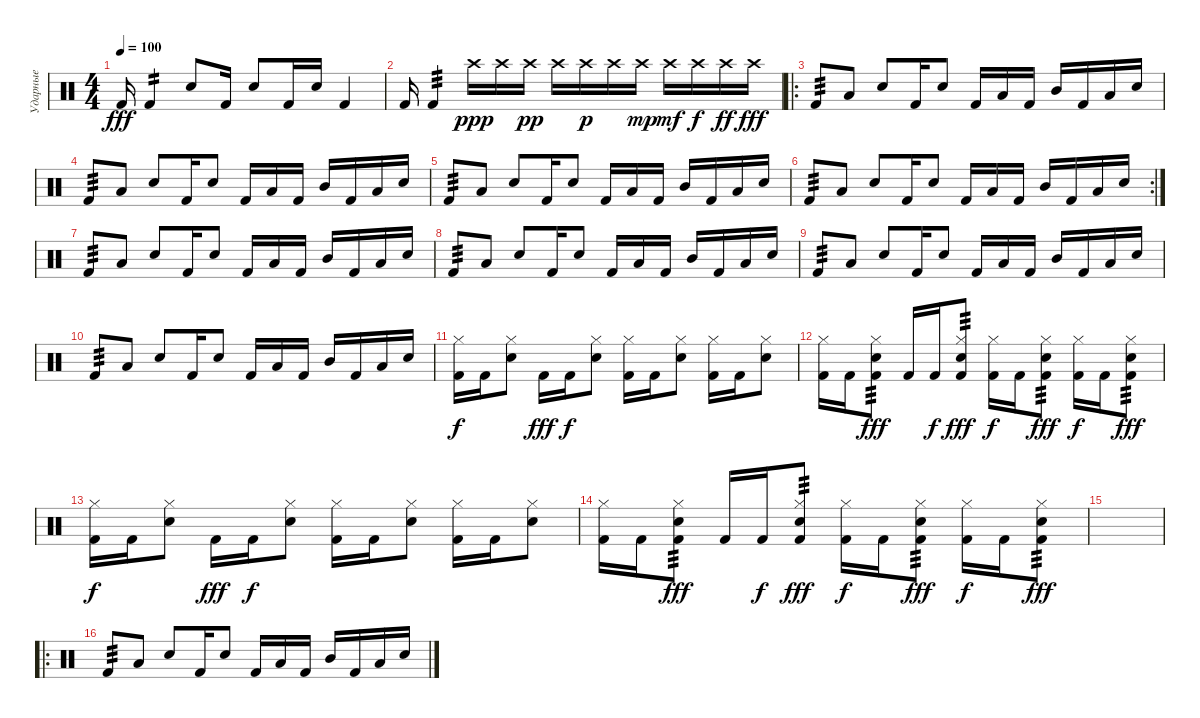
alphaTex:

\track ("Ударные" "Ударные") {instrument percussion}
\staff {score}
\articulation defaults
\ts (4 4)
\tempo 100
\clef neutral
\ks c "Kick (hit) 2".16{dy fff} "Kick (hit) 2".4{tp 2} "Snare (hit) 2".8 "Kick (hit) 2".16 "Snare (hit) 2".8 "Kick (hit) 2".16 "Snare (hit) 2".16 "Kick (hit) 2".4
|
"Kick (hit) 2".16 "Kick (hit) 2".4{tp 3} "Crash high (hit)".16{dy ppp} "Crash high (hit)".16 "Crash high (hit)".16{dy pp} "Crash high (hit)".16 "Crash high (hit)".16{dy p} "Crash high (hit)".16 "Crash high (hit)".16{dy mp} "Crash high (hit)".16{dy mf} "Crash high (hit)".16{dy f} "Crash high (hit)".16{dy ff} "Crash high (hit)".16{dy fff} |
\ro "Kick (hit) 2".8{tp 3} "Low Floor Tom (hit)".8 "Snare (hit) 2".8 "Kick (hit) 2".16 "Snare (hit) 2".8 "Kick (hit) 2".16 "Low Tom (hit)".16 "Kick (hit) 2".16 "Mid Tom (hit)".16 "Kick (hit) 2".16 "Low Tom (hit)".16 "Snare (hit) 2".16
|
"Kick (hit) 2".8{tp 3} "Low Floor Tom (hit)".8 "Snare (hit) 2".8 "Kick (hit) 2".16 "Snare (hit) 2".8 "Kick (hit) 2".16 "Low Tom (hit)".16 "Kick (hit) 2".16 "Mid Tom (hit)".16 "Kick (hit) 2".16 "Low Tom (hit)".16 "Snare (hit) 2".16 |
"Kick (hit) 2".8{tp 3} "Low Floor Tom (hit)".8 "Snare (hit) 2".8 "Kick (hit) 2".16 "Snare (hit) 2".8 "Kick (hit) 2".16 "Low Tom (hit)".16 "Kick (hit) 2".16 "Mid Tom (hit)".16 "Kick (hit) 2".16 "Low Tom (hit)".16 "Snare (hit) 2".16 |
\rc 2 "Kick (hit) 2".8{tp 3} "Low Floor Tom (hit)".8 "Snare (hit) 2".8 "Kick (hit) 2".16 "Snare (hit) 2".8 "Kick (hit) 2".16 "Low Tom (hit)".16 "Kick (hit) 2".16 "Mid Tom (hit)".16 "Kick (hit) 2".16 "Low Tom (hit)".16 "Snare (hit) 2".16
|
"Kick (hit) 2".8{tp 3} "Low Floor Tom (hit)".8 "Snare (hit) 2".8 "Kick (hit) 2".16 "Snare (hit) 2".8 "Kick (hit) 2".16 "Low Tom (hit)".16 "Kick (hit) 2".16 "Mid Tom (hit)".16 "Kick (hit) 2".16 "Low Tom (hit)".16 "Snare (hit) 2".16 |
"Kick (hit) 2".8{tp 3} "Low Floor Tom (hit)".8 "Snare (hit) 2".8 "Kick (hit) 2".16 "Snare (hit) 2".8 "Kick (hit) 2".16 "Low Tom (hit)".16 "Kick (hit) 2".16 "Mid Tom (hit)".16 "Kick (hit) 2".16 "Low Tom (hit)".16 "Snare (hit) 2".16 |
"Kick (hit) 2".8{tp 3} "Low Floor Tom (hit)".8 "Snare (hit) 2".8 "Kick (hit) 2".16 "Snare (hit) 2".8 "Kick (hit) 2".16 "Low Tom (hit)".16 "Kick (hit) 2".16 "Mid Tom (hit)".16 "Kick (hit) 2".16 "Low Tom (hit)".16 "Snare (hit) 2".16 |
"Kick (hit) 2".8{tp 3} "Low Floor Tom (hit)".8 "Snare (hit) 2".8 "Kick (hit) 2".16 "Snare (hit) 2".8 "Kick (hit) 2".16 "Low Tom (hit)".16 "Kick (hit) 2".16 "Mid Tom (hit)".16 "Kick (hit) 2".16 "Low Tom (hit)".16 "Snare (hit) 2".16 |
("Hi-Hat (closed)" "Kick (hit) 2").16{dy f} "Kick (hit) 2".16 ("Hi-Hat (closed)" "Electric Snare (hit)").8 "Kick (hit) 2".16{dy fff} "Kick (hit) 2".16{dy f} ("Hi-Hat (closed)" "Electric Snare (hit)").8 ("Hi-Hat (closed)" "Kick (hit) 2").16 "Kick (hit) 2".16 ("Hi-Hat (closed)" "Electric Snare (hit)").8 ("Hi-Hat (closed)" "Kick (hit) 2").16 "Kick (hit) 2".16 ("Hi-Hat (closed)" "Electric Snare (hit)").8 |
("Hi-Hat (closed)" "Kick (hit) 2").16 "Kick (hit) 2".16 ("Hi-Hat (closed)" "Electric Snare (hit)" "Kick (hit) 2").8{tp 3 dy fff} "Kick (hit) 2".16 "Kick (hit) 2".16{dy f} ("Hi-Hat (closed)" "Electric Snare (hit)" "Kick (hit) 2").8{tp 3 dy fff} ("Hi-Hat (closed)" "Kick (hit) 2").16{dy f} "Kick (hit) 2".16 ("Hi-Hat (closed)" "Electric Snare (hit)" "Kick (hit) 2").8{tp 3 dy fff} ("Hi-Hat (closed)" "Kick (hit) 2").16{dy f} "Kick (hit) 2".16 ("Hi-Hat (closed)" "Electric Snare (hit)" "Kick (hit) 2").8{tp 3 dy fff} |
("Hi-Hat (closed)" "Kick (hit) 2").16{dy f} "Kick (hit) 2".16 ("Hi-Hat (closed)" "Electric Snare (hit)").8 "Kick (hit) 2".16{dy fff} "Kick (hit) 2".16{dy f} ("Hi-Hat (closed)" "Electric Snare (hit)").8 ("Hi-Hat (closed)" "Kick (hit) 2").16 "Kick (hit) 2".16 ("Hi-Hat (closed)" "Electric Snare (hit)").8 ("Hi-Hat (closed)" "Kick (hit) 2").16 "Kick (hit) 2".16 ("Hi-Hat (closed)" "Electric Snare (hit)").8 |
("Hi-Hat (closed)" "Kick (hit) 2").16 "Kick (hit) 2".16 ("Hi-Hat (closed)" "Electric Snare (hit)" "Kick (hit) 2").8{tp 3 dy fff} "Kick (hit) 2".16 "Kick (hit) 2".16{dy f} ("Hi-Hat (closed)" "Electric Snare (hit)" "Kick (hit) 2").8{tp 3 dy fff} ("Hi-Hat (closed)" "Kick (hit) 2").16{dy f} "Kick (hit) 2".16 ("Hi-Hat (closed)" "Electric Snare (hit)" "Kick (hit) 2").8{tp 3 dy fff} ("Hi-Hat (closed)" "Kick (hit) 2").16{dy f} "Kick (hit) 2".16 ("Hi-Hat (closed)" "Electric Snare (hit)" "Kick (hit) 2").8{tp 3 dy fff} |
|
\ro "Kick (hit) 2".8{tp 3} "Low Floor Tom (hit)".8 "Snare (hit) 2".8 "Kick (hit) 2".16 "Snare (hit) 2".8 "Kick (hit) 2".16 "Low Tom (hit)".16 "Kick (hit) 2".16 "Mid Tom (hit)".16 "Kick (hit) 2".16 "Low Tom (hit)".16 "Snare (hit) 2".16
